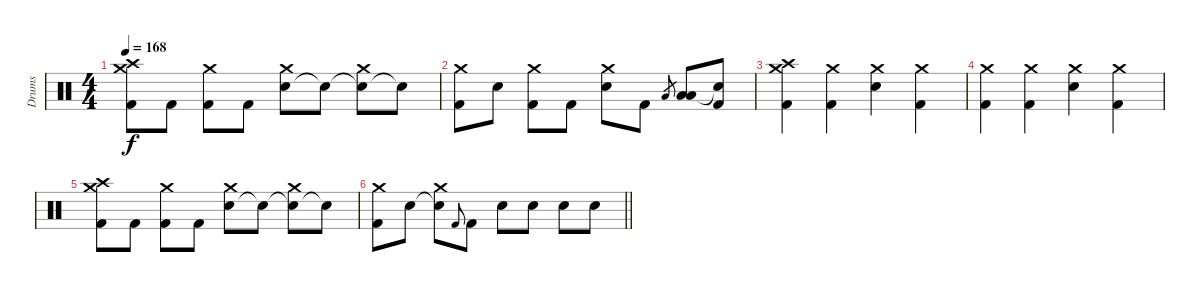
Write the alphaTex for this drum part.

\track ("Drums" "Drums") {instrument percussion}
\staff {score}
\articulation defaults
\ts (4 4)
\tempo 168
\clef neutral
\ks c
("Kick (hit) 2" "Crash medium (hit)" "Crash high (hit)").8{dy f} "Kick (hit) 2".8 ("Kick (hit) 2" "Crash medium (hit)").8 "Kick (hit) 2".8 ("Electric Snare (hit)" "Crash medium (hit)").8 "Snare (hit)"{t}.8 ("Snare (hit)"{t} "Crash medium (hit)").8 "Snare (hit)"{t}.8 |
("Kick (hit) 2" "Crash medium (hit)").8 "Electric Snare (hit)".8 ("Kick (hit) 2" "Crash medium (hit)").8 "Kick (hit) 2".8 ("Electric Snare (hit)" "Crash medium (hit)").8 "Kick (hit) 2".8 "Low Tom (hit)".8{gr} ("Low Tom (hit)" "Low Floor Tom (hit)").8 ("Kick (hit) 2" "Snare (hit)"{t}).8 |
("Kick (hit) 2" "Crash medium (hit)" "Crash high (hit)").4 ("Kick (hit) 2" "Crash medium (hit)").4 ("Electric Snare (hit)" "Crash medium (hit)").4 ("Kick (hit) 2" "Crash medium (hit)").4 |
("Kick (hit) 2" "Crash medium (hit)").4 ("Kick (hit) 2" "Crash medium (hit)").4 ("Electric Snare (hit)" "Crash medium (hit)").4 ("Kick (hit) 2" "Crash medium (hit)").4 |
("Kick (hit) 2" "Crash medium (hit)" "Crash high (hit)").8 "Kick (hit) 2".8 ("Kick (hit) 2" "Crash medium (hit)").8 "Kick (hit) 2".8 ("Electric Snare (hit)" "Crash medium (hit)").8 "Snare (hit)"{t}.8 ("Snare (hit)"{t} "Crash medium (hit)").8 "Snare (hit)"{t}.8 |
\barLineRight lightlight
("Kick (hit) 2" "Crash medium (hit)").8 "Electric Snare (hit)".8 ("Snare (hit)"{t} "Crash medium (hit)").8 "Kick (hit) 2".8{gr onbeat} "Kick (hit) 2".8 "Electric Snare (hit)".8 "Electric Snare (hit)".8 "Electric Snare (hit)".8 "Electric Snare (hit)".8
